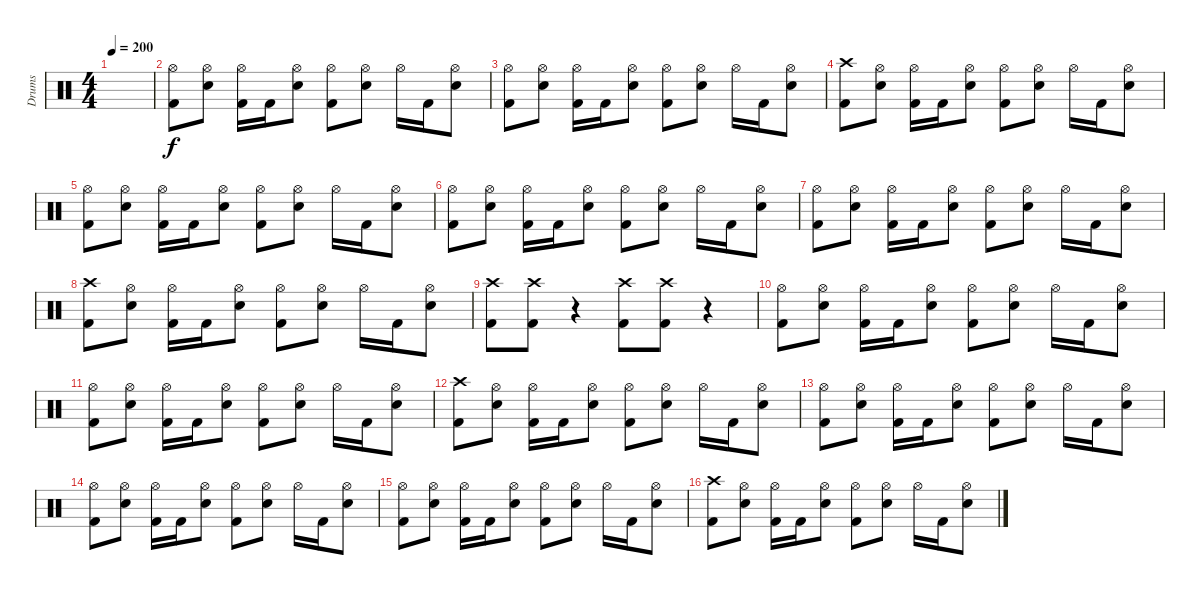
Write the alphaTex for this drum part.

\track ("Drums" "Drums") {instrument percussion}
\staff {score}
\articulation defaults
\ts (4 4)
\tempo 200
\clef neutral
\ks c
|
("Hi-Hat (open)" "Kick (hit) 2").8 ("Hi-Hat (open)" "Electric Snare (hit)").8 ("Hi-Hat (open)" "Kick (hit) 2").16 "Kick (hit) 2".16 ("Hi-Hat (open)" "Electric Snare (hit)").8 ("Hi-Hat (open)" "Kick (hit) 2").8 ("Hi-Hat (open)" "Electric Snare (hit)").8 "Hi-Hat (open)".16 "Kick (hit) 2".16 ("Hi-Hat (open)" "Electric Snare (hit)").8 |
("Hi-Hat (open)" "Kick (hit) 2").8 ("Hi-Hat (open)" "Electric Snare (hit)").8 ("Hi-Hat (open)" "Kick (hit) 2").16 "Kick (hit) 2".16 ("Hi-Hat (open)" "Electric Snare (hit)").8 ("Hi-Hat (open)" "Kick (hit) 2").8 ("Hi-Hat (open)" "Electric Snare (hit)").8 "Hi-Hat (open)".16 "Kick (hit) 2".16 ("Hi-Hat (open)" "Electric Snare (hit)").8 |
("Crash high (hit)" "Kick (hit) 2").8 ("Hi-Hat (open)" "Electric Snare (hit)").8 ("Hi-Hat (open)" "Kick (hit) 2").16 "Kick (hit) 2".16 ("Hi-Hat (open)" "Electric Snare (hit)").8 ("Hi-Hat (open)" "Kick (hit) 2").8 ("Hi-Hat (open)" "Electric Snare (hit)").8 "Hi-Hat (open)".16 "Kick (hit) 2".16 ("Hi-Hat (open)" "Electric Snare (hit)").8 |
("Hi-Hat (open)" "Kick (hit) 2").8 ("Hi-Hat (open)" "Electric Snare (hit)").8 ("Hi-Hat (open)" "Kick (hit) 2").16 "Kick (hit) 2".16 ("Hi-Hat (open)" "Electric Snare (hit)").8 ("Hi-Hat (open)" "Kick (hit) 2").8 ("Hi-Hat (open)" "Electric Snare (hit)").8 "Hi-Hat (open)".16 "Kick (hit) 2".16 ("Hi-Hat (open)" "Electric Snare (hit)").8 |
("Hi-Hat (open)" "Kick (hit) 2").8 ("Hi-Hat (open)" "Electric Snare (hit)").8 ("Hi-Hat (open)" "Kick (hit) 2").16 "Kick (hit) 2".16 ("Hi-Hat (open)" "Electric Snare (hit)").8 ("Hi-Hat (open)" "Kick (hit) 2").8 ("Hi-Hat (open)" "Electric Snare (hit)").8 "Hi-Hat (open)".16 "Kick (hit) 2".16 ("Hi-Hat (open)" "Electric Snare (hit)").8 |
("Hi-Hat (open)" "Kick (hit) 2").8 ("Hi-Hat (open)" "Electric Snare (hit)").8 ("Hi-Hat (open)" "Kick (hit) 2").16 "Kick (hit) 2".16 ("Hi-Hat (open)" "Electric Snare (hit)").8 ("Hi-Hat (open)" "Kick (hit) 2").8 ("Hi-Hat (open)" "Electric Snare (hit)").8 "Hi-Hat (open)".16 "Kick (hit) 2".16 ("Hi-Hat (open)" "Electric Snare (hit)").8 |
("Crash high (hit)" "Kick (hit) 2").8 ("Hi-Hat (open)" "Electric Snare (hit)").8 ("Hi-Hat (open)" "Kick (hit) 2").16 "Kick (hit) 2".16 ("Hi-Hat (open)" "Electric Snare (hit)").8 ("Hi-Hat (open)" "Kick (hit) 2").8 ("Hi-Hat (open)" "Electric Snare (hit)").8 "Hi-Hat (open)".16 "Kick (hit) 2".16 ("Hi-Hat (open)" "Electric Snare (hit)").8 |
("Crash high (hit)" "Kick (hit) 2").8 ("Crash high (hit)" "Kick (hit) 2").8 r.4 ("Crash high (hit)" "Kick (hit) 2").8 ("Crash high (hit)" "Kick (hit) 2").8 r.4 |
("Hi-Hat (open)" "Kick (hit) 2").8 ("Hi-Hat (open)" "Electric Snare (hit)").8 ("Hi-Hat (open)" "Kick (hit) 2").16 "Kick (hit) 2".16 ("Hi-Hat (open)" "Electric Snare (hit)").8 ("Hi-Hat (open)" "Kick (hit) 2").8 ("Hi-Hat (open)" "Electric Snare (hit)").8 "Hi-Hat (open)".16 "Kick (hit) 2".16 ("Hi-Hat (open)" "Electric Snare (hit)").8 |
("Hi-Hat (open)" "Kick (hit) 2").8 ("Hi-Hat (open)" "Electric Snare (hit)").8 ("Hi-Hat (open)" "Kick (hit) 2").16 "Kick (hit) 2".16 ("Hi-Hat (open)" "Electric Snare (hit)").8 ("Hi-Hat (open)" "Kick (hit) 2").8 ("Hi-Hat (open)" "Electric Snare (hit)").8 "Hi-Hat (open)".16 "Kick (hit) 2".16 ("Hi-Hat (open)" "Electric Snare (hit)").8 |
("Crash high (hit)" "Kick (hit) 2").8 ("Hi-Hat (open)" "Electric Snare (hit)").8 ("Hi-Hat (open)" "Kick (hit) 2").16 "Kick (hit) 2".16 ("Hi-Hat (open)" "Electric Snare (hit)").8 ("Hi-Hat (open)" "Kick (hit) 2").8 ("Hi-Hat (open)" "Electric Snare (hit)").8 "Hi-Hat (open)".16 "Kick (hit) 2".16 ("Hi-Hat (open)" "Electric Snare (hit)").8 |
("Hi-Hat (open)" "Kick (hit) 2").8 ("Hi-Hat (open)" "Electric Snare (hit)").8 ("Hi-Hat (open)" "Kick (hit) 2").16 "Kick (hit) 2".16 ("Hi-Hat (open)" "Electric Snare (hit)").8 ("Hi-Hat (open)" "Kick (hit) 2").8 ("Hi-Hat (open)" "Electric Snare (hit)").8 "Hi-Hat (open)".16 "Kick (hit) 2".16 ("Hi-Hat (open)" "Electric Snare (hit)").8 |
("Hi-Hat (open)" "Kick (hit) 2").8 ("Hi-Hat (open)" "Electric Snare (hit)").8 ("Hi-Hat (open)" "Kick (hit) 2").16 "Kick (hit) 2".16 ("Hi-Hat (open)" "Electric Snare (hit)").8 ("Hi-Hat (open)" "Kick (hit) 2").8 ("Hi-Hat (open)" "Electric Snare (hit)").8 "Hi-Hat (open)".16 "Kick (hit) 2".16 ("Hi-Hat (open)" "Electric Snare (hit)").8 |
("Hi-Hat (open)" "Kick (hit) 2").8 ("Hi-Hat (open)" "Electric Snare (hit)").8 ("Hi-Hat (open)" "Kick (hit) 2").16 "Kick (hit) 2".16 ("Hi-Hat (open)" "Electric Snare (hit)").8 ("Hi-Hat (open)" "Kick (hit) 2").8 ("Hi-Hat (open)" "Electric Snare (hit)").8 "Hi-Hat (open)".16 "Kick (hit) 2".16 ("Hi-Hat (open)" "Electric Snare (hit)").8 |
("Crash high (hit)" "Kick (hit) 2").8 ("Hi-Hat (open)" "Electric Snare (hit)").8 ("Hi-Hat (open)" "Kick (hit) 2").16 "Kick (hit) 2".16 ("Hi-Hat (open)" "Electric Snare (hit)").8 ("Hi-Hat (open)" "Kick (hit) 2").8 ("Hi-Hat (open)" "Electric Snare (hit)").8 "Hi-Hat (open)".16 "Kick (hit) 2".16 ("Hi-Hat (open)" "Electric Snare (hit)").8
